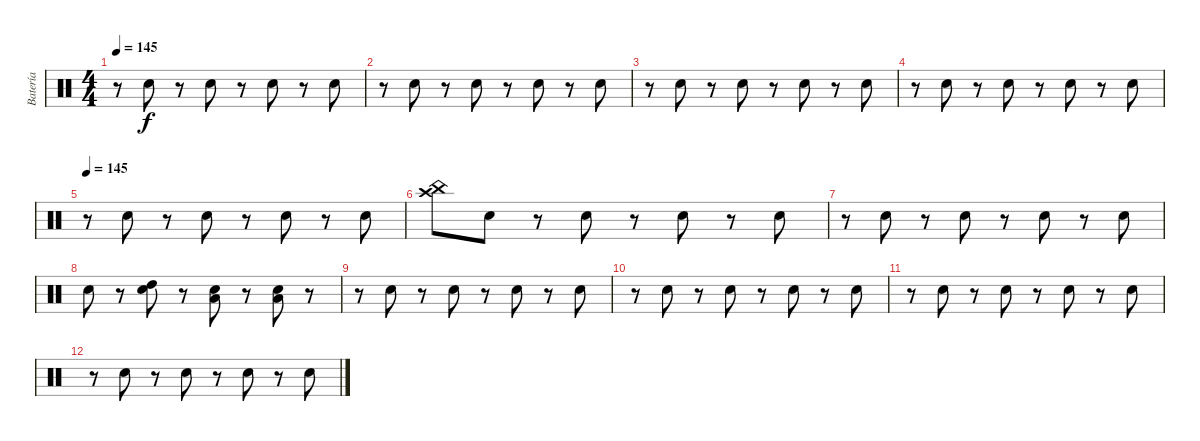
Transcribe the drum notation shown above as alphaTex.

\track ("Batería" "Batería") {instrument percussion}
\staff {score}
\articulation defaults
\ts (4 4)
\tempo 145
\clef neutral
\ks c
r.8{dy f} "Snare (hit) 2".8 r.8 "Snare (hit) 2".8 r.8 "Snare (hit) 2".8 r.8 "Snare (hit) 2".8 |
r.8 "Snare (hit) 2".8 r.8 "Snare (hit) 2".8 r.8 "Snare (hit) 2".8 r.8 "Snare (hit) 2".8 |
r.8 "Snare (hit) 2".8 r.8 "Snare (hit) 2".8 r.8 "Snare (hit) 2".8 r.8 "Snare (hit) 2".8 |
r.8 "Snare (hit) 2".8 r.8 "Snare (hit) 2".8 r.8 "Snare (hit) 2".8 r.8 "Snare (hit) 2".8 |
\tempo 145
r.8 "Snare (hit) 2".8 r.8 "Snare (hit) 2".8 r.8 "Snare (hit) 2".8 r.8 "Snare (hit) 2".8 |
("Crash high (hit)" "China (hit)").8 "Snare (hit) 2".8 r.8 "Snare (hit) 2".8 r.8 "Snare (hit) 2".8 r.8 "Snare (hit) 2".8 |
r.8 "Snare (hit) 2".8 r.8 "Snare (hit) 2".8 r.8 "Snare (hit) 2".8 r.8 "Snare (hit) 2".8 |
"Snare (hit) 2".8 r.8 ("Snare (hit) 2" "High Tom (hit)").8 r.8 ("Snare (hit) 2" "Low Tom (hit)").8 r.8 ("Snare (hit) 2" "Low Floor Tom (hit)").8 r.8 |
r.8 "Snare (hit) 2".8 r.8 "Snare (hit) 2".8 r.8 "Snare (hit) 2".8 r.8 "Snare (hit) 2".8 |
r.8 "Snare (hit) 2".8 r.8 "Snare (hit) 2".8 r.8 "Snare (hit) 2".8 r.8 "Snare (hit) 2".8 |
r.8 "Snare (hit) 2".8 r.8 "Snare (hit) 2".8 r.8 "Snare (hit) 2".8 r.8 "Snare (hit) 2".8 |
r.8 "Snare (hit) 2".8 r.8 "Snare (hit) 2".8 r.8 "Snare (hit) 2".8 r.8 "Snare (hit) 2".8
